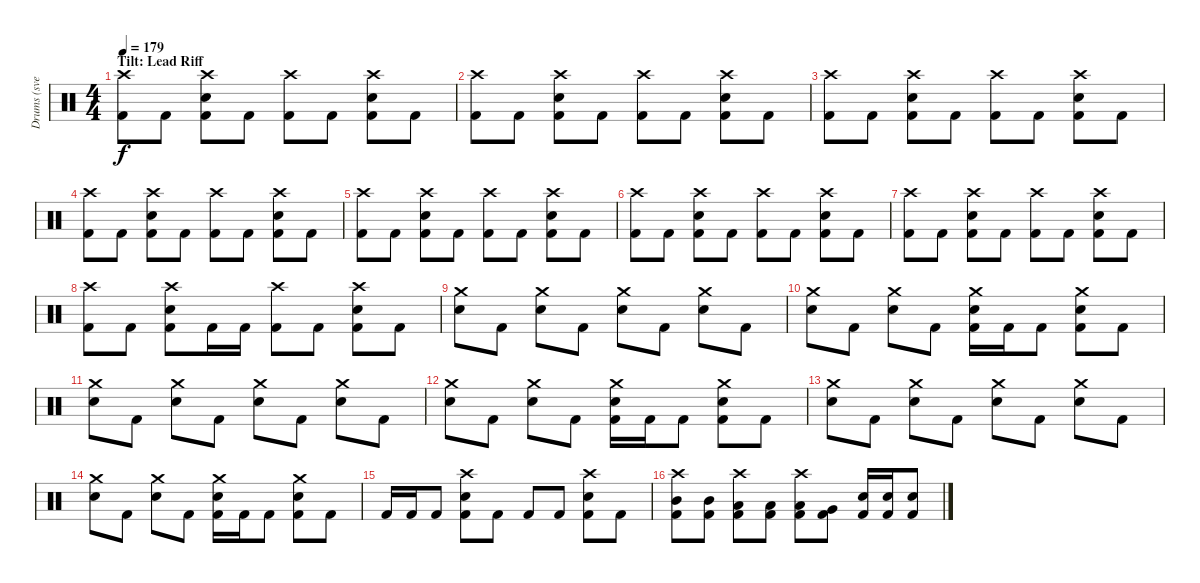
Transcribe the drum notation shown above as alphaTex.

\track ("Drums (svelle)" "Drums (sve") {instrument percussion}
\staff {score}
\articulation defaults
\ts (4 4)
\section ("" "Tilt: Lead Riff")
\tempo 179
\clef neutral
\ks c
("Crash high (hit)" "Kick (hit) 2").8{dy f} "Kick (hit) 2".8 ("Crash high (hit)" "Electric Snare (hit)" "Kick (hit) 2").8 "Kick (hit) 2".8 ("Crash high (hit)" "Kick (hit) 2").8 "Kick (hit) 2".8 ("Crash high (hit)" "Electric Snare (hit)" "Kick (hit) 2").8 "Kick (hit) 2".8 |
("Crash high (hit)" "Kick (hit) 2").8 "Kick (hit) 2".8 ("Crash high (hit)" "Electric Snare (hit)" "Kick (hit) 2").8 "Kick (hit) 2".8 ("Crash high (hit)" "Kick (hit) 2").8 "Kick (hit) 2".8 ("Crash high (hit)" "Electric Snare (hit)" "Kick (hit) 2").8 "Kick (hit) 2".8 |
("Crash high (hit)" "Kick (hit) 2").8 "Kick (hit) 2".8 ("Crash high (hit)" "Electric Snare (hit)" "Kick (hit) 2").8 "Kick (hit) 2".8 ("Crash high (hit)" "Kick (hit) 2").8 "Kick (hit) 2".8 ("Crash high (hit)" "Electric Snare (hit)" "Kick (hit) 2").8 "Kick (hit) 2".8 |
("Crash high (hit)" "Kick (hit) 2").8 "Kick (hit) 2".8 ("Crash high (hit)" "Electric Snare (hit)" "Kick (hit) 2").8 "Kick (hit) 2".8 ("Crash high (hit)" "Kick (hit) 2").8 "Kick (hit) 2".8 ("Crash high (hit)" "Electric Snare (hit)" "Kick (hit) 2").8 "Kick (hit) 2".8 |
("Crash high (hit)" "Kick (hit) 2").8 "Kick (hit) 2".8 ("Crash high (hit)" "Electric Snare (hit)" "Kick (hit) 2").8 "Kick (hit) 2".8 ("Crash high (hit)" "Kick (hit) 2").8 "Kick (hit) 2".8 ("Crash high (hit)" "Electric Snare (hit)" "Kick (hit) 2").8 "Kick (hit) 2".8 |
("Crash high (hit)" "Kick (hit) 2").8 "Kick (hit) 2".8 ("Crash high (hit)" "Electric Snare (hit)" "Kick (hit) 2").8 "Kick (hit) 2".8 ("Crash high (hit)" "Kick (hit) 2").8 "Kick (hit) 2".8 ("Crash high (hit)" "Electric Snare (hit)" "Kick (hit) 2").8 "Kick (hit) 2".8 |
("Crash high (hit)" "Kick (hit) 2").8 "Kick (hit) 2".8 ("Crash high (hit)" "Electric Snare (hit)" "Kick (hit) 2").8 "Kick (hit) 2".8 ("Crash high (hit)" "Kick (hit) 2").8 "Kick (hit) 2".8 ("Crash high (hit)" "Electric Snare (hit)" "Kick (hit) 2").8 "Kick (hit) 2".8 |
("Crash high (hit)" "Kick (hit) 2").8 "Kick (hit) 2".8 ("Crash high (hit)" "Electric Snare (hit)" "Kick (hit) 2").8 "Kick (hit) 2".16 "Kick (hit) 2".16 ("Crash high (hit)" "Kick (hit) 2").8 "Kick (hit) 2".8 ("Crash high (hit)" "Electric Snare (hit)" "Kick (hit) 2").8 "Kick (hit) 2".8 |
("Crash medium (hit)" "Electric Snare (hit)").8 "Kick (hit) 2".8 ("Crash medium (hit)" "Electric Snare (hit)").8 "Kick (hit) 2".8 ("Crash medium (hit)" "Electric Snare (hit)").8 "Kick (hit) 2".8 ("Crash medium (hit)" "Electric Snare (hit)").8 "Kick (hit) 2".8 |
("Crash medium (hit)" "Electric Snare (hit)").8 "Kick (hit) 2".8 ("Crash medium (hit)" "Electric Snare (hit)").8 "Kick (hit) 2".8 ("Crash medium (hit)" "Electric Snare (hit)" "Kick (hit) 2").16 "Kick (hit) 2".16 "Kick (hit) 2".8 ("Crash medium (hit)" "Electric Snare (hit)" "Kick (hit) 2").8 "Kick (hit) 2".8 |
("Crash medium (hit)" "Electric Snare (hit)").8 "Kick (hit) 2".8 ("Crash medium (hit)" "Electric Snare (hit)").8 "Kick (hit) 2".8 ("Crash medium (hit)" "Electric Snare (hit)").8 "Kick (hit) 2".8 ("Crash medium (hit)" "Electric Snare (hit)").8 "Kick (hit) 2".8 |
("Crash medium (hit)" "Electric Snare (hit)").8 "Kick (hit) 2".8 ("Crash medium (hit)" "Electric Snare (hit)").8 "Kick (hit) 2".8 ("Crash medium (hit)" "Electric Snare (hit)" "Kick (hit) 2").16 "Kick (hit) 2".16 "Kick (hit) 2".8 ("Crash medium (hit)" "Electric Snare (hit)" "Kick (hit) 2").8 "Kick (hit) 2".8 |
("Crash medium (hit)" "Electric Snare (hit)").8 "Kick (hit) 2".8 ("Crash medium (hit)" "Electric Snare (hit)").8 "Kick (hit) 2".8 ("Crash medium (hit)" "Electric Snare (hit)").8 "Kick (hit) 2".8 ("Crash medium (hit)" "Electric Snare (hit)").8 "Kick (hit) 2".8 |
("Crash medium (hit)" "Electric Snare (hit)").8 "Kick (hit) 2".8 ("Crash medium (hit)" "Electric Snare (hit)").8 "Kick (hit) 2".8 ("Crash medium (hit)" "Electric Snare (hit)" "Kick (hit) 2").16 "Kick (hit) 2".16 "Kick (hit) 2".8 ("Crash medium (hit)" "Electric Snare (hit)" "Kick (hit) 2").8 "Kick (hit) 2".8 |
"Kick (hit) 2".16 "Kick (hit) 2".16 "Kick (hit) 2".8 ("Crash high (hit)" "Electric Snare (hit)" "Kick (hit) 2").8 "Kick (hit) 2".8 "Kick (hit) 2".8 "Kick (hit) 2".8 ("Crash high (hit)" "Electric Snare (hit)" "Kick (hit) 2").8 "Kick (hit) 2".8 |
("Crash high (hit)" "Mid Tom (hit)" "Kick (hit) 2").8 ("Mid Tom (hit)" "Kick (hit) 2").8 ("Crash high (hit)" "Low Tom (hit)" "Kick (hit) 2").8 ("Low Tom (hit)" "Kick (hit) 2").8 ("Crash high (hit)" "Low Tom (hit)" "Kick (hit) 2").8 ("Very Low Tom (hit)" "Kick (hit) 2").8 ("Electric Snare (hit)" "Kick (hit) 2").16 ("Electric Snare (hit)" "Kick (hit) 2").16 ("Electric Snare (hit)" "Kick (hit) 2").8
